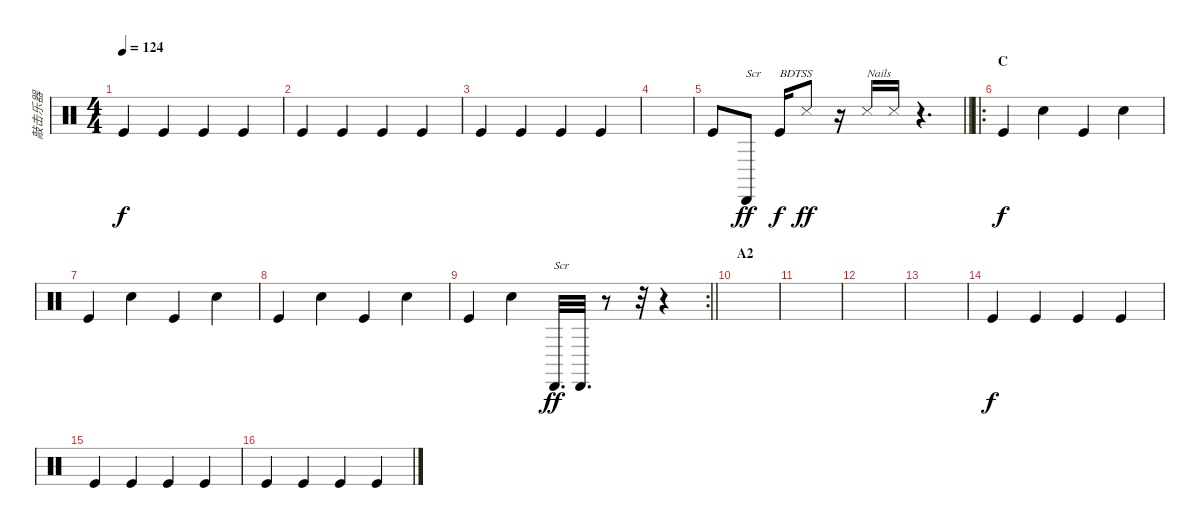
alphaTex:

\track ("敲击乐器" "敲击乐器") {instrument percussion}
\staff {score}
\articulation defaults
\ts (4 4)
\tempo 124
\clef neutral
\ks c "Kick (hit)".4{dy f} "Kick (hit)".4 "Kick (hit)".4 "Kick (hit)".4
|
"Kick (hit)".4 "Kick (hit)".4 "Kick (hit)".4 "Kick (hit)".4 |
"Kick (hit)".4 "Kick (hit)".4 "Kick (hit)".4 "Kick (hit)".4 |
|
\barLineRight lightlight "Kick (hit)".8 "Cabasa (hit)".8{txt "Scr" dy ff} "Kick (hit)".16{txt "BDTSS" dy f} "Snare (side stick) 3".8{dy ff}
r.16 "Snare (side stick) 3".16{txt "Nails" beam Up} "Metronome (hit)".16{beam Up} r.4{d} |
\ro
\section ("" "C")
"Kick (hit)".4{dy f} "Snare (hit) 2".4 "Kick (hit)".4 "Snare (hit) 2".4 |
"Kick (hit)".4 "Snare (hit) 2".4 "Kick (hit)".4 "Snare (hit) 2".4 |
"Kick (hit)".4 "Snare (hit) 2".4 "Kick (hit)".4 "Snare (hit) 2".4 |
\rc 2
\barLineRight lightlight "Kick (hit)".4 "Snare (hit) 2".4 "Cabasa (hit)".32{d txt "Scr" dy ff} "Cabasa (hit)".32{d}
r.8 r.32 r.4 |
\section ("" "A2")
|
|
|
|
"Kick (hit)".4{dy f} "Kick (hit)".4 "Kick (hit)".4 "Kick (hit)".4 |
"Kick (hit)".4 "Kick (hit)".4 "Kick (hit)".4 "Kick (hit)".4 |
"Kick (hit)".4 "Kick (hit)".4 "Kick (hit)".4 "Kick (hit)".4
